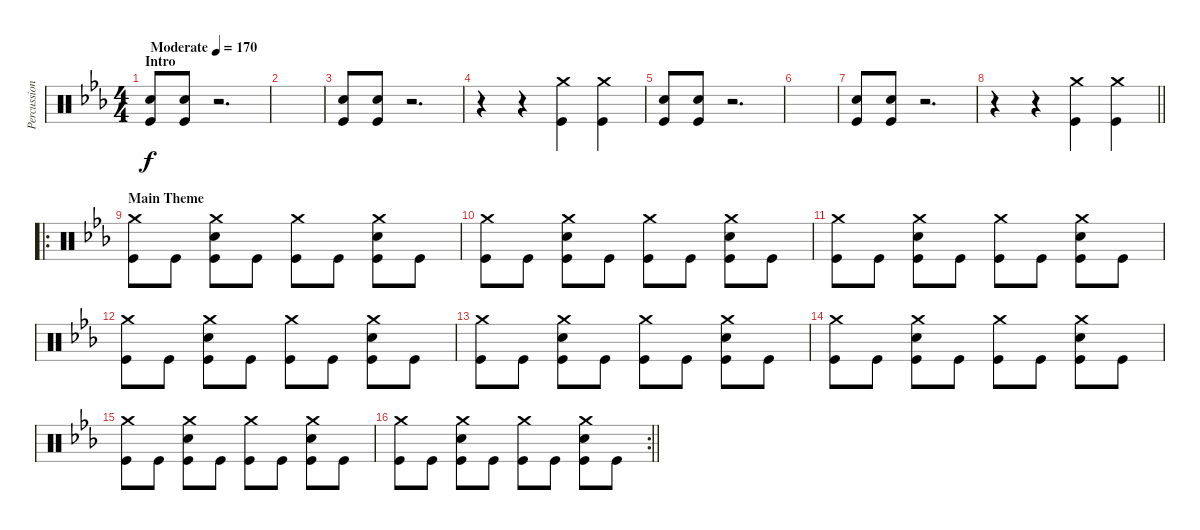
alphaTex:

\track ("Percussion" "Percussion") {instrument percussion}
\staff {score}
\articulation defaults
\ts (4 4)
\section ("" "Intro")
\tempo (170 "Moderate")
\clef neutral
\ks cminor
("Snare (hit) 2" "Kick (hit)").8{dy f} ("Snare (hit) 2" "Kick (hit)").8 r.2{d} |
|
("Snare (hit) 2" "Kick (hit)").8 ("Snare (hit) 2" "Kick (hit)").8 r.2{d} |
r.4 r.4 ("Crash medium (hit)" "Kick (hit)").4 ("Crash medium (hit)" "Kick (hit)").4 |
("Snare (hit) 2" "Kick (hit)").8 ("Snare (hit) 2" "Kick (hit)").8 r.2{d} |
|
("Snare (hit) 2" "Kick (hit)").8 ("Snare (hit) 2" "Kick (hit)").8 r.2{d} |
\barLineRight lightlight
r.4 r.4 ("Crash medium (hit)" "Kick (hit)").4 ("Crash medium (hit)" "Kick (hit)").4 |
\ro
\section ("" "Main Theme")
("Crash medium (hit)" "Kick (hit)").8 "Kick (hit)".8 ("Crash medium (hit)" "Snare (hit) 2" "Kick (hit)").8 "Kick (hit)".8 ("Crash medium (hit)" "Kick (hit)").8 "Kick (hit)".8 ("Crash medium (hit)" "Snare (hit) 2" "Kick (hit)").8 "Kick (hit)".8 |
("Crash medium (hit)" "Kick (hit)").8 "Kick (hit)".8 ("Crash medium (hit)" "Snare (hit) 2" "Kick (hit)").8 "Kick (hit)".8 ("Crash medium (hit)" "Kick (hit)").8 "Kick (hit)".8 ("Crash medium (hit)" "Snare (hit) 2" "Kick (hit)").8 "Kick (hit)".8 |
("Crash medium (hit)" "Kick (hit)").8 "Kick (hit)".8 ("Crash medium (hit)" "Snare (hit) 2" "Kick (hit)").8 "Kick (hit)".8 ("Crash medium (hit)" "Kick (hit)").8 "Kick (hit)".8 ("Crash medium (hit)" "Snare (hit) 2" "Kick (hit)").8 "Kick (hit)".8 |
("Crash medium (hit)" "Kick (hit)").8 "Kick (hit)".8 ("Crash medium (hit)" "Snare (hit) 2" "Kick (hit)").8 "Kick (hit)".8 ("Crash medium (hit)" "Kick (hit)").8 "Kick (hit)".8 ("Crash medium (hit)" "Snare (hit) 2" "Kick (hit)").8 "Kick (hit)".8 |
("Crash medium (hit)" "Kick (hit)").8 "Kick (hit)".8 ("Crash medium (hit)" "Snare (hit) 2" "Kick (hit)").8 "Kick (hit)".8 ("Crash medium (hit)" "Kick (hit)").8 "Kick (hit)".8 ("Crash medium (hit)" "Snare (hit) 2" "Kick (hit)").8 "Kick (hit)".8 |
("Crash medium (hit)" "Kick (hit)").8 "Kick (hit)".8 ("Crash medium (hit)" "Snare (hit) 2" "Kick (hit)").8 "Kick (hit)".8 ("Crash medium (hit)" "Kick (hit)").8 "Kick (hit)".8 ("Crash medium (hit)" "Snare (hit) 2" "Kick (hit)").8 "Kick (hit)".8 |
("Crash medium (hit)" "Kick (hit)").8 "Kick (hit)".8 ("Crash medium (hit)" "Snare (hit) 2" "Kick (hit)").8 "Kick (hit)".8 ("Crash medium (hit)" "Kick (hit)").8 "Kick (hit)".8 ("Crash medium (hit)" "Snare (hit) 2" "Kick (hit)").8 "Kick (hit)".8 |
\rc 2
\barLineRight lightlight
("Crash medium (hit)" "Kick (hit)").8 "Kick (hit)".8 ("Crash medium (hit)" "Snare (hit) 2" "Kick (hit)").8 "Kick (hit)".8 ("Crash medium (hit)" "Kick (hit)").8 "Kick (hit)".8 ("Crash medium (hit)" "Snare (hit) 2" "Kick (hit)").8 "Kick (hit)".8
